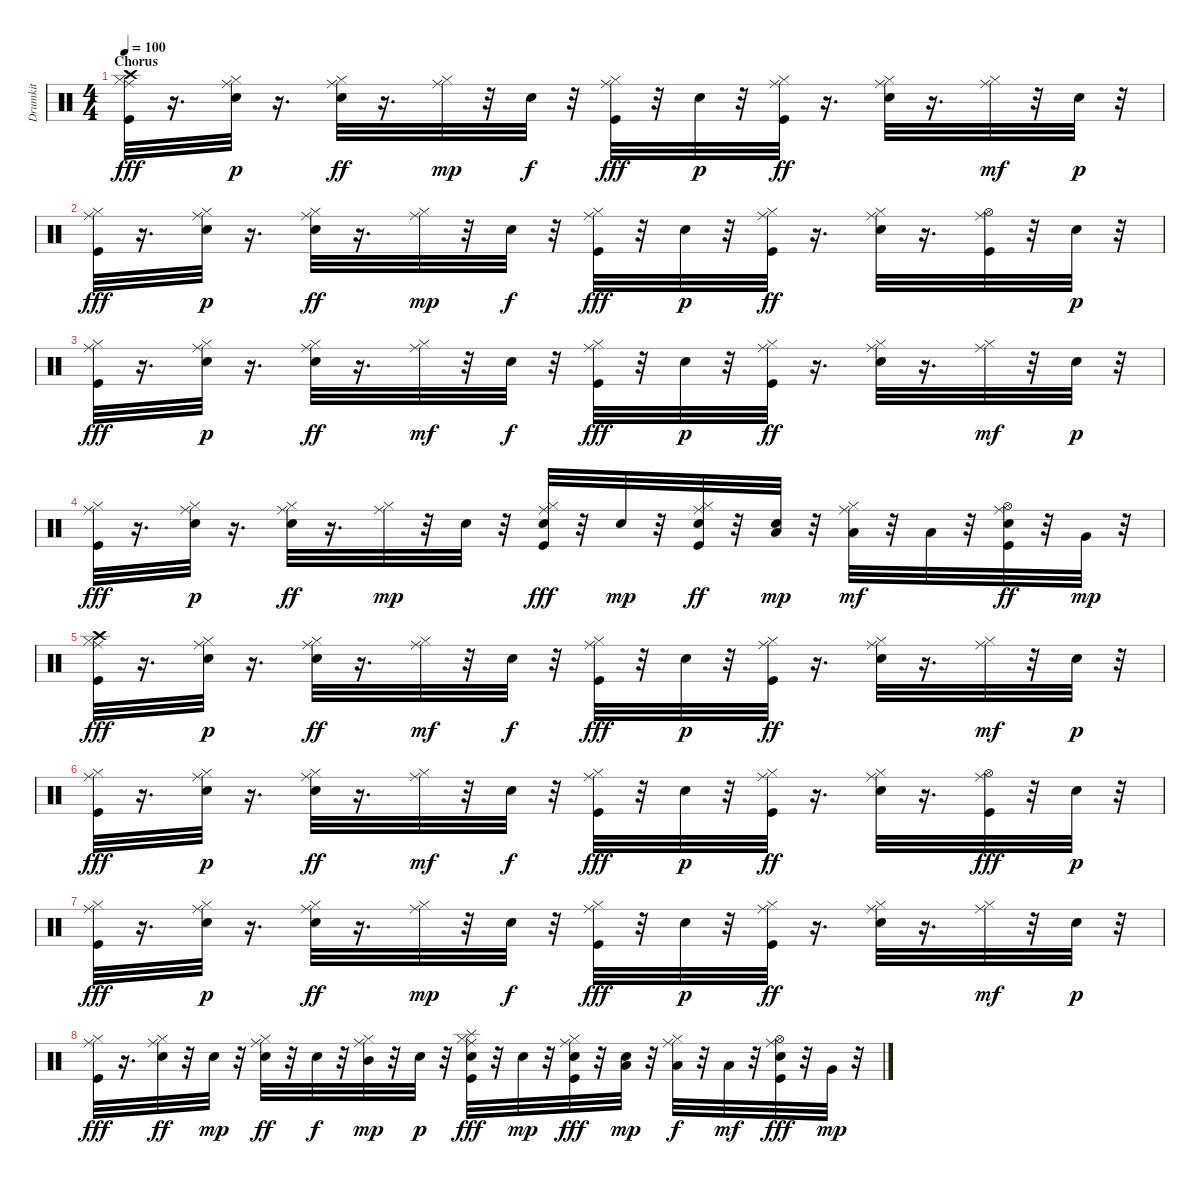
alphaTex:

\track ("Drumkit" "Drumkit") {instrument percussion}
\staff {score}
\articulation defaults
\ts (4 4)
\section ("" "Chorus")
\tempo 100
\clef neutral
\ks c
("Kick (hit)" "Hi-Hat (closed)" "Crash high (hit)" "Ride (middle)").32{dy fff} r.16{d} ("Snare (hit) 2" "Hi-Hat (closed)" "Ride (middle)").32{dy p} r.16{d} ("Snare (hit) 2" "Hi-Hat (closed)" "Ride (middle)").32{dy ff} r.16{d} ("Hi-Hat (closed)" "Ride (middle)").32{dy mp} r.32 "Snare (hit) 2".32{dy f} r.32 ("Kick (hit)" "Hi-Hat (closed)" "Ride (middle)").32{dy fff} r.32 "Snare (hit) 2".32{dy p} r.32 ("Kick (hit)" "Hi-Hat (closed)" "Ride (middle)").32{dy ff} r.16{d} ("Snare (hit) 2" "Hi-Hat (closed)" "Ride (middle)").32 r.16{d} ("Hi-Hat (closed)" "Ride (middle)").32{dy mf} r.32 "Snare (hit) 2".32{dy p} r.32 |
("Kick (hit)" "Hi-Hat (closed)" "Ride (middle)").32{dy fff} r.16{d} ("Snare (hit) 2" "Hi-Hat (closed)" "Ride (middle)").32{dy p} r.16{d} ("Snare (hit) 2" "Hi-Hat (closed)" "Ride (middle)").32{dy ff} r.16{d} ("Hi-Hat (closed)" "Ride (middle)").32{dy mp} r.32 "Snare (hit) 2".32{dy f} r.32 ("Kick (hit)" "Hi-Hat (closed)" "Ride (middle)").32{dy fff} r.32 "Snare (hit) 2".32{dy p} r.32 ("Kick (hit)" "Hi-Hat (closed)" "Ride (middle)").32{dy ff} r.16{d} ("Snare (hit) 2" "Hi-Hat (closed)" "Ride (middle)").32 r.16{d} ("Kick (hit)" "Hi-Hat (open)" "Ride (middle)").32 r.32 "Snare (hit) 2".32{dy p} r.32 |
("Kick (hit)" "Hi-Hat (closed)" "Ride (middle)").32{dy fff} r.16{d} ("Snare (hit) 2" "Hi-Hat (closed)" "Ride (middle)").32{dy p} r.16{d} ("Snare (hit) 2" "Hi-Hat (closed)" "Ride (middle)").32{dy ff} r.16{d} ("Hi-Hat (closed)" "Ride (middle)").32{dy mf} r.32 "Snare (hit) 2".32{dy f} r.32 ("Kick (hit)" "Hi-Hat (closed)" "Ride (middle)").32{dy fff} r.32 "Snare (hit) 2".32{dy p} r.32 ("Kick (hit)" "Hi-Hat (closed)" "Ride (middle)").32{dy ff} r.16{d} ("Snare (hit) 2" "Hi-Hat (closed)" "Ride (middle)").32 r.16{d} ("Hi-Hat (closed)" "Ride (middle)").32{dy mf} r.32 "Snare (hit) 2".32{dy p} r.32 |
("Kick (hit)" "Hi-Hat (closed)" "Ride (middle)").32{dy fff} r.16{d} ("Snare (hit) 2" "Hi-Hat (closed)" "Ride (middle)").32{dy p} r.16{d} ("Snare (hit) 2" "Hi-Hat (closed)" "Ride (middle)").32{dy ff} r.16{d} ("Hi-Hat (closed)" "Ride (middle)").32{dy mp} r.32 "Snare (hit) 2".32 r.32 ("Kick (hit)" "Snare (hit) 2" "Hi-Hat (closed)" "Ride (middle)").32{dy fff} r.32 "Snare (hit) 2".32{dy mp} r.32 ("Kick (hit)" "Snare (hit) 2" "Hi-Hat (closed)" "Ride (middle)").32{dy ff} r.32 ("Snare (hit) 2" "Low Tom (hit)").32{dy mp} r.32 ("Hi-Hat (closed)" "Low Tom (hit)" "Ride (middle)").32{dy mf} r.32 "Low Tom (hit)".32 r.32 ("Kick (hit)" "Snare (hit) 2" "Hi-Hat (open)" "Ride (middle)").32{dy ff} r.32 "Very Low Tom (hit)".32{dy mp} r.32 |
("Kick (hit)" "Hi-Hat (closed)" "Crash high (hit)" "Ride (middle)").32{dy fff} r.16{d} ("Snare (hit) 2" "Hi-Hat (closed)" "Ride (middle)").32{dy p} r.16{d} ("Snare (hit) 2" "Hi-Hat (closed)" "Ride (middle)").32{dy ff} r.16{d} ("Hi-Hat (closed)" "Ride (middle)").32{dy mf} r.32 "Snare (hit) 2".32{dy f} r.32 ("Kick (hit)" "Hi-Hat (closed)" "Ride (middle)").32{dy fff} r.32 "Snare (hit) 2".32{dy p} r.32 ("Kick (hit)" "Hi-Hat (closed)" "Ride (middle)").32{dy ff} r.16{d} ("Snare (hit) 2" "Hi-Hat (closed)" "Ride (middle)").32 r.16{d} ("Hi-Hat (closed)" "Ride (middle)").32{dy mf} r.32 "Snare (hit) 2".32{dy p} r.32 |
("Kick (hit)" "Hi-Hat (closed)" "Ride (middle)").32{dy fff} r.16{d} ("Snare (hit) 2" "Hi-Hat (closed)" "Ride (middle)").32{dy p} r.16{d} ("Snare (hit) 2" "Hi-Hat (closed)" "Ride (middle)").32{dy ff} r.16{d} ("Hi-Hat (closed)" "Ride (middle)").32{dy mf} r.32 "Snare (hit) 2".32{dy f} r.32 ("Kick (hit)" "Hi-Hat (closed)" "Ride (middle)").32{dy fff} r.32 "Snare (hit) 2".32{dy p} r.32 ("Kick (hit)" "Hi-Hat (closed)" "Ride (middle)").32{dy ff} r.16{d} ("Snare (hit) 2" "Hi-Hat (closed)" "Ride (middle)").32 r.16{d} ("Kick (hit)" "Hi-Hat (open)" "Ride (middle)").32{dy fff} r.32 "Snare (hit) 2".32{dy p} r.32 |
("Kick (hit)" "Hi-Hat (closed)" "Ride (middle)").32{dy fff} r.16{d} ("Snare (hit) 2" "Hi-Hat (closed)" "Ride (middle)").32{dy p} r.16{d} ("Snare (hit) 2" "Hi-Hat (closed)" "Ride (middle)").32{dy ff} r.16{d} ("Hi-Hat (closed)" "Ride (middle)").32{dy mp} r.32 "Snare (hit) 2".32{dy f} r.32 ("Kick (hit)" "Hi-Hat (closed)" "Ride (middle)").32{dy fff} r.32 "Snare (hit) 2".32{dy p} r.32 ("Kick (hit)" "Hi-Hat (closed)" "Ride (middle)").32{dy ff} r.16{d} ("Snare (hit) 2" "Hi-Hat (closed)" "Ride (middle)").32 r.16{d} ("Hi-Hat (closed)" "Ride (middle)").32{dy mf} r.32 "Snare (hit) 2".32{dy p} r.32 |
("Kick (hit)" "Hi-Hat (closed)" "Ride (middle)").32{dy fff} r.16{d} ("Snare (hit) 2" "Hi-Hat (closed)" "Ride (middle)").32{dy ff} r.32 "Snare (hit) 2".32{dy mp} r.32 ("Snare (hit) 2" "Hi-Hat (closed)" "Ride (middle)").32{dy ff} r.32 "Snare (hit) 2".32{dy f} r.32 ("Hi-Hat (closed)" "Mid Tom (hit)" "Ride (middle)").32{dy mp} r.32 "Snare (hit) 2".32{dy p} r.32 ("Kick (hit)" "Snare (hit) 2" "Hi-Hat (closed)" "Ride (middle)" "Splash (hit)").32{dy fff} r.32 "Snare (hit) 2".32{dy mp} r.32 ("Kick (hit)" "Snare (hit) 2" "Hi-Hat (closed)" "Ride (middle)").32{dy fff} r.32 ("Snare (hit) 2" "Low Tom (hit)").32{dy mp} r.32 ("Hi-Hat (closed)" "Low Tom (hit)" "Ride (middle)").32{dy f} r.32 "Low Tom (hit)".32{dy mf} r.32 ("Kick (hit)" "Snare (hit) 2" "Hi-Hat (open)" "Ride (middle)").32{dy fff} r.32 "Very Low Tom (hit)".32{dy mp} r.32
